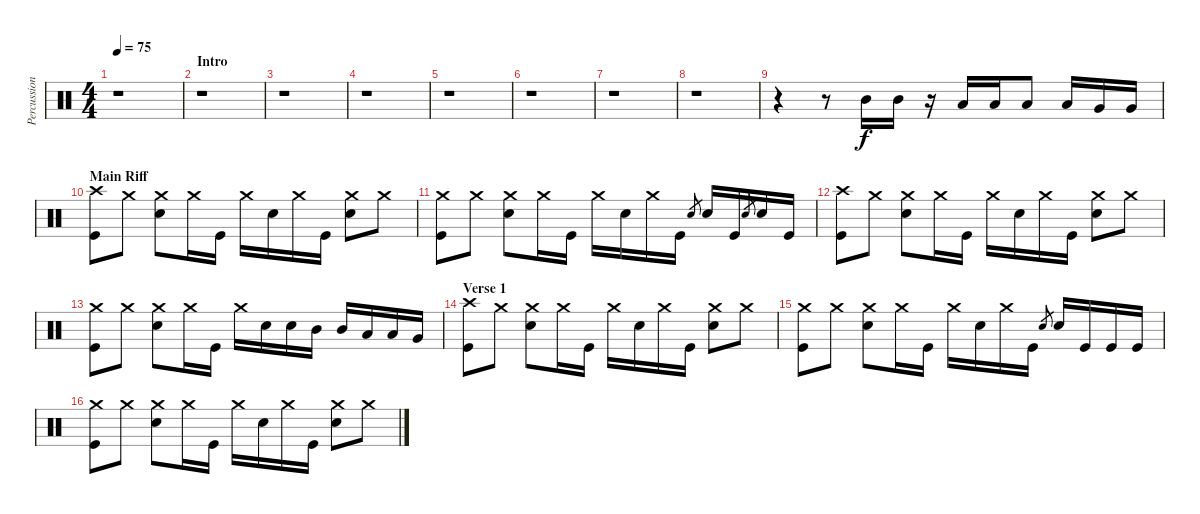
\track ("Percussion" "Percussion") {instrument percussion}
\staff {score}
\articulation defaults
\ts (4 4)
\tempo 75
\clef neutral
\ks c
r.1{dy f} |
\section ("" "Intro")
r.1 |
r.1 |
r.1 |
r.1 |
r.1 |
r.1 |
r.1 |
r.4 r.8 "Mid Tom (hit)".16 "Mid Tom (hit)".16 r.16 "Low Tom (hit)".16 "Low Tom (hit)".16 "Low Tom (hit)".8 "Low Tom (hit)".16 "Very Low Tom (hit)".16 "Very Low Tom (hit)".16 |
\section ("" "Main Riff")
("Crash high (hit)" "Kick (hit)").8 "Crash medium (hit)".8 ("Crash medium (hit)" "Snare (hit) 2").8 "Crash medium (hit)".16 "Kick (hit)".16 "Crash medium (hit)".16 "Snare (hit) 2".16 "Crash medium (hit)".16 "Kick (hit)".16 ("Crash medium (hit)" "Snare (hit) 2").8 "Crash medium (hit)".8 |
("Crash medium (hit)" "Kick (hit)").8 "Crash medium (hit)".8 ("Crash medium (hit)" "Snare (hit) 2").8 "Crash medium (hit)".16 "Kick (hit)".16 "Crash medium (hit)".16 "Snare (hit) 2".16 "Crash medium (hit)".16 "Kick (hit)".16 "Snare (hit) 2".8{gr} "Snare (hit) 2".16 "Kick (hit)".16 "Snare (hit) 2".8{gr} "Snare (hit) 2".16 "Kick (hit)".16 |
("Crash high (hit)" "Kick (hit)").8 "Crash medium (hit)".8 ("Crash medium (hit)" "Snare (hit) 2").8 "Crash medium (hit)".16 "Kick (hit)".16 "Crash medium (hit)".16 "Snare (hit) 2".16 "Crash medium (hit)".16 "Kick (hit)".16 ("Crash medium (hit)" "Snare (hit) 2").8 "Crash medium (hit)".8 |
("Crash medium (hit)" "Kick (hit)").8 "Crash medium (hit)".8 ("Crash medium (hit)" "Snare (hit) 2").8 "Crash medium (hit)".16 "Kick (hit)".16 "Crash medium (hit)".16 "Snare (hit) 2".16 "Snare (hit) 2".16 "Mid Tom (hit)".16 "Mid Tom (hit)".16 "Low Tom (hit)".16 "Low Tom (hit)".16 "Very Low Tom (hit)".16 |
\section ("" "Verse 1")
("Crash high (hit)" "Kick (hit)").8 "Crash medium (hit)".8 ("Crash medium (hit)" "Snare (hit) 2").8 "Crash medium (hit)".16 "Kick (hit)".16 "Crash medium (hit)".16 "Snare (hit) 2".16 "Crash medium (hit)".16 "Kick (hit)".16 ("Crash medium (hit)" "Snare (hit) 2").8 "Crash medium (hit)".8 |
("Crash medium (hit)" "Kick (hit)").8 "Crash medium (hit)".8 ("Crash medium (hit)" "Snare (hit) 2").8 "Crash medium (hit)".16 "Kick (hit)".16 "Crash medium (hit)".16 "Snare (hit) 2".16 "Crash medium (hit)".16 "Kick (hit)".16 "Snare (hit) 2".8{gr} "Snare (hit) 2".16 "Kick (hit)".16 "Kick (hit)".16 "Kick (hit)".16 |
("Crash medium (hit)" "Kick (hit)").8 "Crash medium (hit)".8 ("Crash medium (hit)" "Snare (hit) 2").8 "Crash medium (hit)".16 "Kick (hit)".16 "Crash medium (hit)".16 "Snare (hit) 2".16 "Crash medium (hit)".16 "Kick (hit)".16 ("Crash medium (hit)" "Snare (hit) 2").8 "Crash medium (hit)".8
